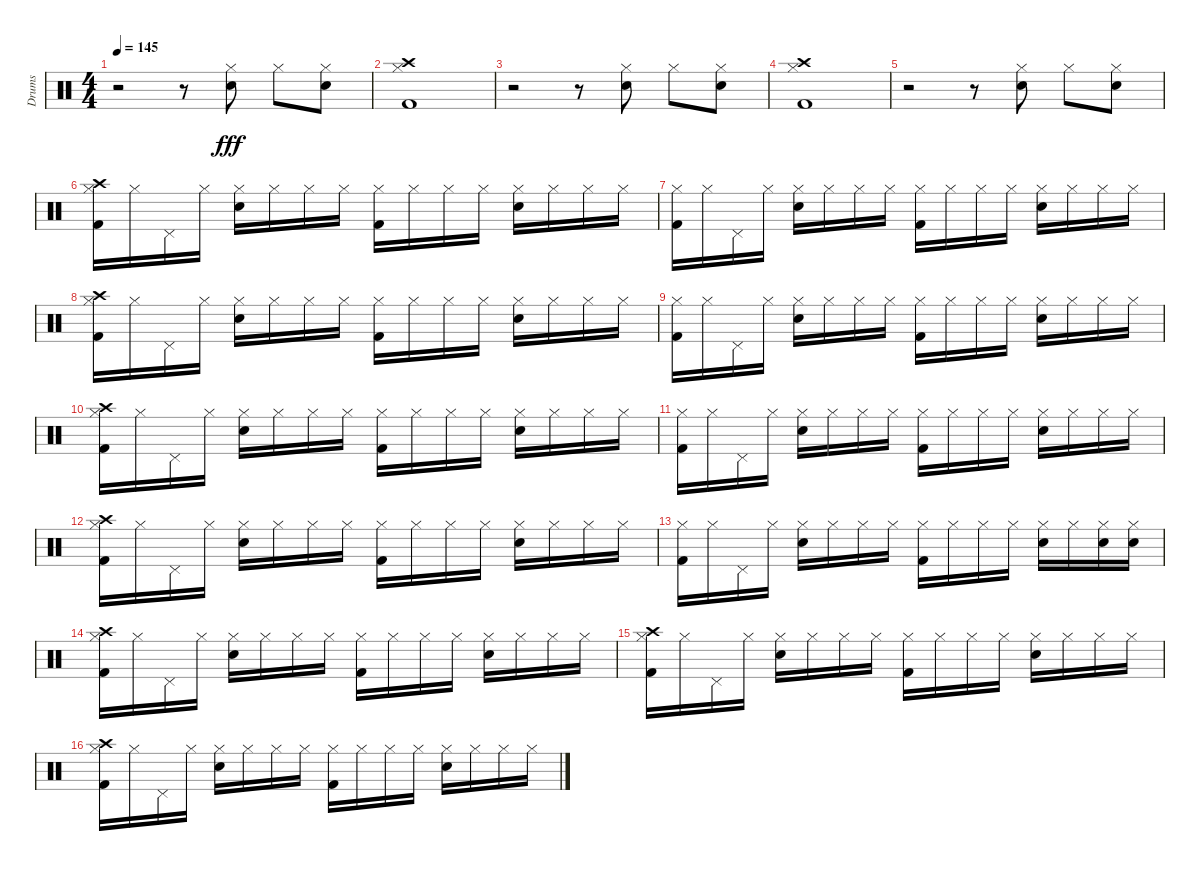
\track ("Drums" "Drums") {instrument percussion}
\staff {score}
\articulation defaults
\ts (4 4)
\tempo 145
\clef neutral
\ks c
r.2{dy fff} r.8 ("Hi-Hat (closed)" "Snare (hit) 2").8 "Hi-Hat (closed)".8 ("Hi-Hat (closed)" "Snare (hit) 2").8 |
("Hi-Hat (closed)" "Kick (hit) 2" "Crash high (hit)").1 |
r.2 r.8 ("Hi-Hat (closed)" "Snare (hit) 2").8 "Hi-Hat (closed)".8 ("Hi-Hat (closed)" "Snare (hit) 2").8 |
("Hi-Hat (closed)" "Kick (hit) 2" "Crash high (hit)").1 |
r.2 r.8 ("Hi-Hat (closed)" "Snare (hit) 2").8 "Hi-Hat (closed)".8 ("Hi-Hat (closed)" "Snare (hit) 2").8 |
("Hi-Hat (closed)" "Kick (hit) 2" "Crash high (hit)").16 "Hi-Hat (closed)".16 "Pedal Hi-Hat (hit)".16 "Hi-Hat (closed)".16 ("Hi-Hat (closed)" "Snare (hit) 2").16 "Hi-Hat (closed)".16 "Hi-Hat (closed)".16 "Hi-Hat (closed)".16 ("Hi-Hat (closed)" "Kick (hit) 2").16 "Hi-Hat (closed)".16 "Hi-Hat (closed)".16 "Hi-Hat (closed)".16 ("Hi-Hat (closed)" "Snare (hit) 2").16 "Hi-Hat (closed)".16 "Hi-Hat (closed)".16 "Hi-Hat (closed)".16 |
("Hi-Hat (closed)" "Kick (hit) 2").16 "Hi-Hat (closed)".16 "Pedal Hi-Hat (hit)".16 "Hi-Hat (closed)".16 ("Hi-Hat (closed)" "Snare (hit) 2").16 "Hi-Hat (closed)".16 "Hi-Hat (closed)".16 "Hi-Hat (closed)".16 ("Hi-Hat (closed)" "Kick (hit) 2").16 "Hi-Hat (closed)".16 "Hi-Hat (closed)".16 "Hi-Hat (closed)".16 ("Hi-Hat (closed)" "Snare (hit) 2").16 "Hi-Hat (closed)".16 "Hi-Hat (closed)".16 "Hi-Hat (closed)".16 |
("Hi-Hat (closed)" "Kick (hit) 2" "Crash high (hit)").16 "Hi-Hat (closed)".16 "Pedal Hi-Hat (hit)".16 "Hi-Hat (closed)".16 ("Hi-Hat (closed)" "Snare (hit) 2").16 "Hi-Hat (closed)".16 "Hi-Hat (closed)".16 "Hi-Hat (closed)".16 ("Hi-Hat (closed)" "Kick (hit) 2").16 "Hi-Hat (closed)".16 "Hi-Hat (closed)".16 "Hi-Hat (closed)".16 ("Hi-Hat (closed)" "Snare (hit) 2").16 "Hi-Hat (closed)".16 "Hi-Hat (closed)".16 "Hi-Hat (closed)".16 |
("Hi-Hat (closed)" "Kick (hit) 2").16 "Hi-Hat (closed)".16 "Pedal Hi-Hat (hit)".16 "Hi-Hat (closed)".16 ("Hi-Hat (closed)" "Snare (hit) 2").16 "Hi-Hat (closed)".16 "Hi-Hat (closed)".16 "Hi-Hat (closed)".16 ("Hi-Hat (closed)" "Kick (hit) 2").16 "Hi-Hat (closed)".16 "Hi-Hat (closed)".16 "Hi-Hat (closed)".16 ("Hi-Hat (closed)" "Snare (hit) 2").16 "Hi-Hat (closed)".16 "Hi-Hat (closed)".16 "Hi-Hat (closed)".16 |
("Hi-Hat (closed)" "Kick (hit) 2" "Crash high (hit)").16 "Hi-Hat (closed)".16 "Pedal Hi-Hat (hit)".16 "Hi-Hat (closed)".16 ("Hi-Hat (closed)" "Snare (hit) 2").16 "Hi-Hat (closed)".16 "Hi-Hat (closed)".16 "Hi-Hat (closed)".16 ("Hi-Hat (closed)" "Kick (hit) 2").16 "Hi-Hat (closed)".16 "Hi-Hat (closed)".16 "Hi-Hat (closed)".16 ("Hi-Hat (closed)" "Snare (hit) 2").16 "Hi-Hat (closed)".16 "Hi-Hat (closed)".16 "Hi-Hat (closed)".16 |
("Hi-Hat (closed)" "Kick (hit) 2").16 "Hi-Hat (closed)".16 "Pedal Hi-Hat (hit)".16 "Hi-Hat (closed)".16 ("Hi-Hat (closed)" "Snare (hit) 2").16 "Hi-Hat (closed)".16 "Hi-Hat (closed)".16 "Hi-Hat (closed)".16 ("Hi-Hat (closed)" "Kick (hit) 2").16 "Hi-Hat (closed)".16 "Hi-Hat (closed)".16 "Hi-Hat (closed)".16 ("Hi-Hat (closed)" "Snare (hit) 2").16 "Hi-Hat (closed)".16 "Hi-Hat (closed)".16 "Hi-Hat (closed)".16 |
("Hi-Hat (closed)" "Kick (hit) 2" "Crash high (hit)").16 "Hi-Hat (closed)".16 "Pedal Hi-Hat (hit)".16 "Hi-Hat (closed)".16 ("Hi-Hat (closed)" "Snare (hit) 2").16 "Hi-Hat (closed)".16 "Hi-Hat (closed)".16 "Hi-Hat (closed)".16 ("Hi-Hat (closed)" "Kick (hit) 2").16 "Hi-Hat (closed)".16 "Hi-Hat (closed)".16 "Hi-Hat (closed)".16 ("Hi-Hat (closed)" "Snare (hit) 2").16 "Hi-Hat (closed)".16 "Hi-Hat (closed)".16 "Hi-Hat (closed)".16 |
("Hi-Hat (closed)" "Kick (hit) 2").16 "Hi-Hat (closed)".16 "Pedal Hi-Hat (hit)".16 "Hi-Hat (closed)".16 ("Hi-Hat (closed)" "Snare (hit) 2").16 "Hi-Hat (closed)".16 "Hi-Hat (closed)".16 "Hi-Hat (closed)".16 ("Hi-Hat (closed)" "Kick (hit) 2").16 "Hi-Hat (closed)".16 "Hi-Hat (closed)".16 "Hi-Hat (closed)".16 ("Hi-Hat (closed)" "Snare (hit) 2").16 "Hi-Hat (closed)".16 ("Hi-Hat (closed)" "Snare (hit) 2").16 ("Hi-Hat (closed)" "Snare (hit) 2").16 |
("Hi-Hat (closed)" "Kick (hit) 2" "Crash high (hit)").16 "Hi-Hat (closed)".16 "Pedal Hi-Hat (hit)".16 "Hi-Hat (closed)".16 ("Hi-Hat (closed)" "Snare (hit) 2").16 "Hi-Hat (closed)".16 "Hi-Hat (closed)".16 "Hi-Hat (closed)".16 ("Hi-Hat (closed)" "Kick (hit) 2").16 "Hi-Hat (closed)".16 "Hi-Hat (closed)".16 "Hi-Hat (closed)".16 ("Hi-Hat (closed)" "Snare (hit) 2").16 "Hi-Hat (closed)".16 "Hi-Hat (closed)".16 "Hi-Hat (closed)".16 |
("Hi-Hat (closed)" "Kick (hit) 2" "Crash high (hit)").16 "Hi-Hat (closed)".16 "Pedal Hi-Hat (hit)".16 "Hi-Hat (closed)".16 ("Hi-Hat (closed)" "Snare (hit) 2").16 "Hi-Hat (closed)".16 "Hi-Hat (closed)".16 "Hi-Hat (closed)".16 ("Hi-Hat (closed)" "Kick (hit) 2").16 "Hi-Hat (closed)".16 "Hi-Hat (closed)".16 "Hi-Hat (closed)".16 ("Hi-Hat (closed)" "Snare (hit) 2").16 "Hi-Hat (closed)".16 "Hi-Hat (closed)".16 "Hi-Hat (closed)".16 |
("Hi-Hat (closed)" "Kick (hit) 2" "Crash high (hit)").16 "Hi-Hat (closed)".16 "Pedal Hi-Hat (hit)".16 "Hi-Hat (closed)".16 ("Hi-Hat (closed)" "Snare (hit) 2").16 "Hi-Hat (closed)".16 "Hi-Hat (closed)".16 "Hi-Hat (closed)".16 ("Hi-Hat (closed)" "Kick (hit) 2").16 "Hi-Hat (closed)".16 "Hi-Hat (closed)".16 "Hi-Hat (closed)".16 ("Hi-Hat (closed)" "Snare (hit) 2").16 "Hi-Hat (closed)".16 "Hi-Hat (closed)".16 "Hi-Hat (closed)".16
